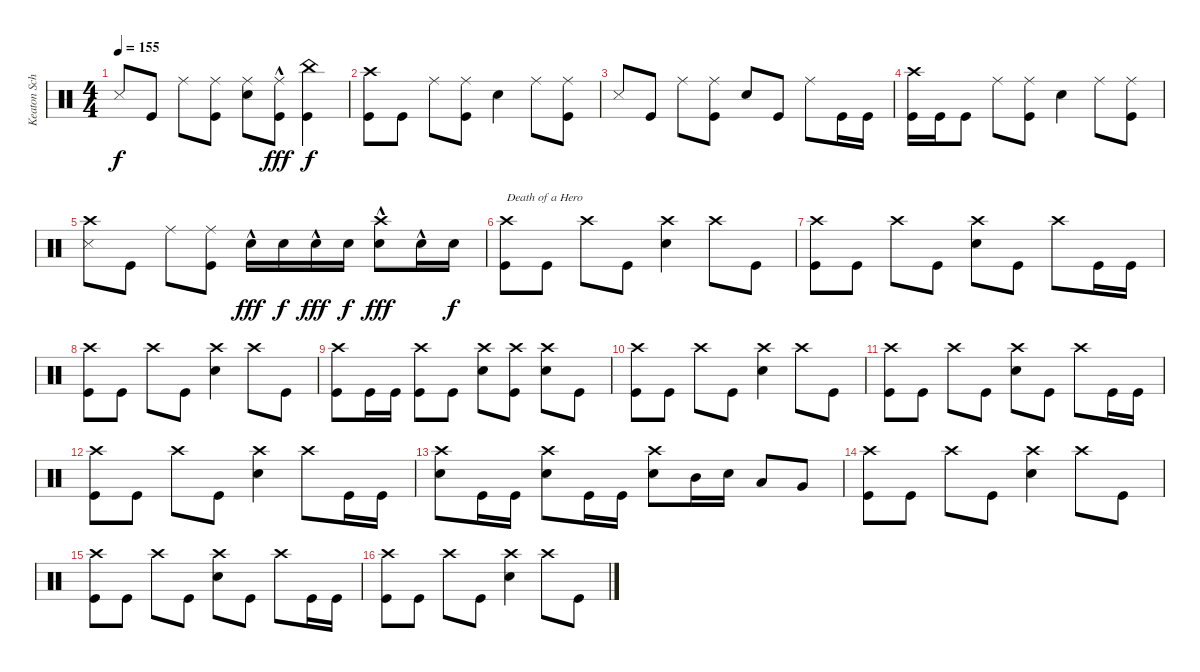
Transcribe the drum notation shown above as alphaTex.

\track ("Keaton Schluchter Drums" "Keaton Sch") {instrument percussion bank 20}
\staff {score}
\articulation defaults
\ts (4 4)
\tempo 155
\clef neutral
\ks c "Snare (side stick) 3".8{dy f} "Kick (hit)".8 "Ride (middle)".8
("Ride (middle)" "Kick (hit)").8 ("Ride (middle)" "Electric Snare (hit)").8 ("Ride (middle)"{hac} "Kick (hit)").8{dy fff} ("China (hit)" "Kick (hit)").4{dy f} |
("Crash high (hit)" "Kick (hit)").8 "Kick (hit)".8 "Ride (middle)".8 ("Ride (middle)" "Kick (hit)").8 "Electric Snare (hit)".4 "Ride (middle)".8 ("Ride (middle)" "Kick (hit)").8 |
"Snare (side stick) 3".8 "Kick (hit)".8 "Ride (middle)".8 ("Ride (middle)" "Kick (hit)").8 "Electric Snare (hit)".8 "Kick (hit)".8 "Ride (middle)".8 "Kick (hit)".16 "Kick (hit)".16 |
("Crash high (hit)" "Kick (hit)").16 "Kick (hit)".16 "Kick (hit)".8 "Ride (middle)".8 ("Ride (middle)" "Kick (hit)").8 "Electric Snare (hit)".4 "Ride (middle)".8 ("Ride (middle)" "Kick (hit)").8 |
("Crash high (hit)" "Snare (side stick) 3").8 "Kick (hit)".8 "Ride (middle)".8 ("Ride (middle)" "Kick (hit)").8 "Electric Snare (hit)"{hac}.16{dy fff} "Electric Snare (hit)".16{dy f} "Electric Snare (hit)"{hac}.16{dy fff} "Electric Snare (hit)".16{dy f} ("Crash high (hit)" "Electric Snare (hit)"{hac}).8{dy fff} "Electric Snare (hit)"{hac}.16 "Electric Snare (hit)".16{dy f} |
("Crash high (hit)" "Kick (hit)").8{txt "Death of a Hero"} "Kick (hit)".8 "Crash high (hit)".8 "Kick (hit)".8 ("Crash high (hit)" "Electric Snare (hit)").4 "Crash high (hit)".8 "Kick (hit)".8 |
("Crash high (hit)" "Kick (hit)").8 "Kick (hit)".8 "Crash high (hit)".8 "Kick (hit)".8 ("Crash high (hit)" "Electric Snare (hit)").8 "Kick (hit)".8 "Crash high (hit)".8 "Kick (hit)".16 "Kick (hit)".16 |
("Crash high (hit)" "Kick (hit)").8 "Kick (hit)".8 "Crash high (hit)".8 "Kick (hit)".8 ("Crash high (hit)" "Electric Snare (hit)").4 "Crash high (hit)".8 "Kick (hit)".8 |
("Crash high (hit)" "Kick (hit)").8 "Kick (hit)".16 "Kick (hit)".16 ("Crash high (hit)" "Kick (hit)").8 "Kick (hit)".8 ("Crash high (hit)" "Electric Snare (hit)").8 ("Crash high (hit)" "Kick (hit)").8 ("Crash high (hit)" "Electric Snare (hit)").8 "Kick (hit)".8 |
("Crash high (hit)" "Kick (hit)").8 "Kick (hit)".8 "Crash high (hit)".8 "Kick (hit)".8 ("Crash high (hit)" "Electric Snare (hit)").4 "Crash high (hit)".8 "Kick (hit)".8 |
("Crash high (hit)" "Kick (hit)").8 "Kick (hit)".8 "Crash high (hit)".8 "Kick (hit)".8 ("Crash high (hit)" "Electric Snare (hit)").8 "Kick (hit)".8 "Crash high (hit)".8 "Kick (hit)".16 "Kick (hit)".16 |
("Crash high (hit)" "Kick (hit)").8 "Kick (hit)".8 "Crash high (hit)".8 "Kick (hit)".8 ("Crash high (hit)" "Electric Snare (hit)").4 "Crash high (hit)".8 "Kick (hit)".16 "Kick (hit)".16 |
("Crash high (hit)" "Electric Snare (hit)").8 "Kick (hit)".16 "Kick (hit)".16 ("Crash high (hit)" "Electric Snare (hit)").8 "Kick (hit)".16 "Kick (hit)".16 ("Crash high (hit)" "Electric Snare (hit)").8 "Mid Tom (hit)".16 "Electric Snare (hit)".16 "Low Tom (hit)".8 "Very Low Tom (hit)".8 |
("Crash high (hit)" "Kick (hit)").8 "Kick (hit)".8 "Crash high (hit)".8 "Kick (hit)".8 ("Crash high (hit)" "Electric Snare (hit)").4 "Crash high (hit)".8 "Kick (hit)".8 |
("Crash high (hit)" "Kick (hit)").8 "Kick (hit)".8 "Crash high (hit)".8 "Kick (hit)".8 ("Crash high (hit)" "Electric Snare (hit)").8 "Kick (hit)".8 "Crash high (hit)".8 "Kick (hit)".16 "Kick (hit)".16 |
("Crash high (hit)" "Kick (hit)").8 "Kick (hit)".8 "Crash high (hit)".8 "Kick (hit)".8 ("Crash high (hit)" "Electric Snare (hit)").4 "Crash high (hit)".8 "Kick (hit)".8
